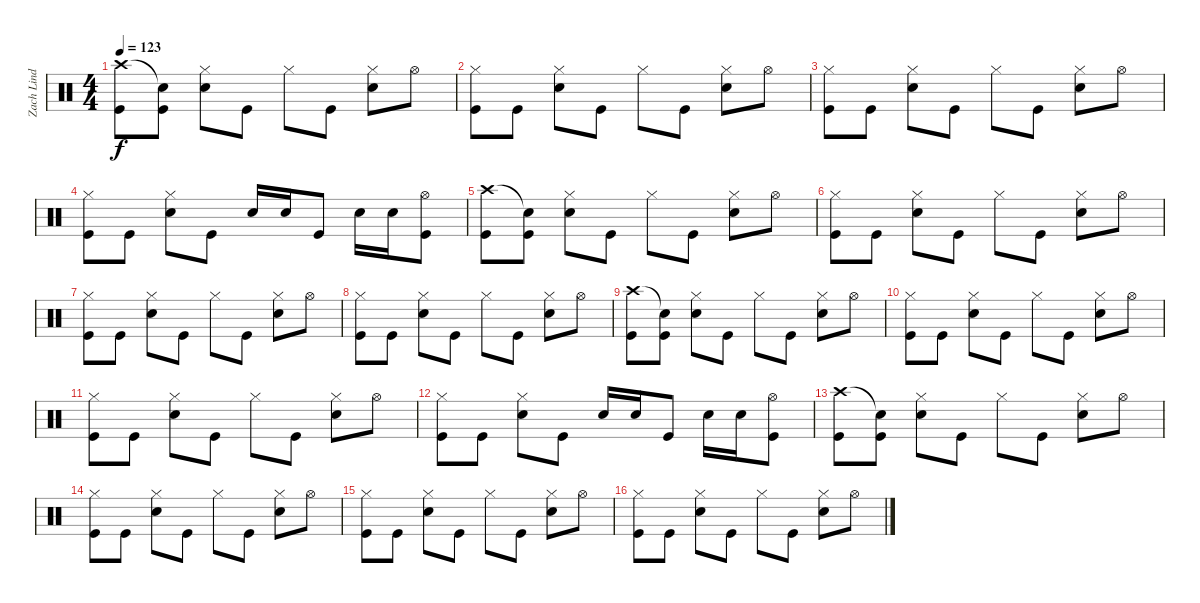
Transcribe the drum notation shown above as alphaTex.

\track ("Zach Lind (Drums)" "Zach Lind ") {instrument percussion}
\staff {score}
\articulation defaults
\ts (4 4)
\tempo 123
\clef neutral
\ks c
("Crash high (hit)" "Kick (hit)").8{dy f} ("Snare (hit)"{t} "Kick (hit)").8 ("Hi-Hat (closed)" "Snare (hit) 2").8 "Kick (hit)".8 "Hi-Hat (closed)".8 "Kick (hit)".8 ("Hi-Hat (closed)" "Snare (hit) 2").8 "Hi-Hat (open)".8 |
("Hi-Hat (closed)" "Kick (hit)").8 "Kick (hit)".8 ("Hi-Hat (closed)" "Snare (hit) 2").8 "Kick (hit)".8 "Hi-Hat (closed)".8 "Kick (hit)".8 ("Hi-Hat (closed)" "Snare (hit) 2").8 "Hi-Hat (open)".8 |
("Hi-Hat (closed)" "Kick (hit)").8 "Kick (hit)".8 ("Hi-Hat (closed)" "Snare (hit) 2").8 "Kick (hit)".8 "Hi-Hat (closed)".8 "Kick (hit)".8 ("Hi-Hat (closed)" "Snare (hit) 2").8 "Hi-Hat (open)".8 |
("Hi-Hat (closed)" "Kick (hit)").8 "Kick (hit)".8 ("Hi-Hat (closed)" "Snare (hit) 2").8 "Kick (hit)".8 "Snare (hit) 2".16 "Snare (hit) 2".16 "Kick (hit)".8 "Snare (hit) 2".16 "Snare (hit) 2".16 ("Hi-Hat (open)" "Kick (hit)").8 |
("Crash high (hit)" "Kick (hit)").8 ("Snare (hit)"{t} "Kick (hit)").8 ("Hi-Hat (closed)" "Snare (hit) 2").8 "Kick (hit)".8 "Hi-Hat (closed)".8 "Kick (hit)".8 ("Hi-Hat (closed)" "Snare (hit) 2").8 "Hi-Hat (open)".8 |
("Hi-Hat (closed)" "Kick (hit)").8 "Kick (hit)".8 ("Hi-Hat (closed)" "Snare (hit) 2").8 "Kick (hit)".8 "Hi-Hat (closed)".8 "Kick (hit)".8 ("Hi-Hat (closed)" "Snare (hit) 2").8 "Hi-Hat (open)".8 |
("Hi-Hat (closed)" "Kick (hit)").8 "Kick (hit)".8 ("Hi-Hat (closed)" "Snare (hit) 2").8 "Kick (hit)".8 "Hi-Hat (closed)".8 "Kick (hit)".8 ("Hi-Hat (closed)" "Snare (hit) 2").8 "Hi-Hat (open)".8 |
("Hi-Hat (closed)" "Kick (hit)").8 "Kick (hit)".8 ("Hi-Hat (closed)" "Snare (hit) 2").8 "Kick (hit)".8 "Hi-Hat (closed)".8 "Kick (hit)".8 ("Hi-Hat (closed)" "Snare (hit) 2").8 "Hi-Hat (open)".8 |
("Crash high (hit)" "Kick (hit)").8 ("Snare (hit)"{t} "Kick (hit)").8 ("Hi-Hat (closed)" "Snare (hit) 2").8 "Kick (hit)".8 "Hi-Hat (closed)".8 "Kick (hit)".8 ("Hi-Hat (closed)" "Snare (hit) 2").8 "Hi-Hat (open)".8 |
("Hi-Hat (closed)" "Kick (hit)").8 "Kick (hit)".8 ("Hi-Hat (closed)" "Snare (hit) 2").8 "Kick (hit)".8 "Hi-Hat (closed)".8 "Kick (hit)".8 ("Hi-Hat (closed)" "Snare (hit) 2").8 "Hi-Hat (open)".8 |
("Hi-Hat (closed)" "Kick (hit)").8 "Kick (hit)".8 ("Hi-Hat (closed)" "Snare (hit) 2").8 "Kick (hit)".8 "Hi-Hat (closed)".8 "Kick (hit)".8 ("Hi-Hat (closed)" "Snare (hit) 2").8 "Hi-Hat (open)".8 |
("Hi-Hat (closed)" "Kick (hit)").8 "Kick (hit)".8 ("Hi-Hat (closed)" "Snare (hit) 2").8 "Kick (hit)".8 "Snare (hit) 2".16 "Snare (hit) 2".16 "Kick (hit)".8 "Snare (hit) 2".16 "Snare (hit) 2".16 ("Hi-Hat (open)" "Kick (hit)").8 |
("Crash high (hit)" "Kick (hit)").8 ("Snare (hit)"{t} "Kick (hit)").8 ("Hi-Hat (closed)" "Snare (hit) 2").8 "Kick (hit)".8 "Hi-Hat (closed)".8 "Kick (hit)".8 ("Hi-Hat (closed)" "Snare (hit) 2").8 "Hi-Hat (open)".8 |
("Hi-Hat (closed)" "Kick (hit)").8 "Kick (hit)".8 ("Hi-Hat (closed)" "Snare (hit) 2").8 "Kick (hit)".8 "Hi-Hat (closed)".8 "Kick (hit)".8 ("Hi-Hat (closed)" "Snare (hit) 2").8 "Hi-Hat (open)".8 |
("Hi-Hat (closed)" "Kick (hit)").8 "Kick (hit)".8 ("Hi-Hat (closed)" "Snare (hit) 2").8 "Kick (hit)".8 "Hi-Hat (closed)".8 "Kick (hit)".8 ("Hi-Hat (closed)" "Snare (hit) 2").8 "Hi-Hat (open)".8 |
("Hi-Hat (closed)" "Kick (hit)").8 "Kick (hit)".8 ("Hi-Hat (closed)" "Snare (hit) 2").8 "Kick (hit)".8 "Hi-Hat (closed)".8 "Kick (hit)".8 ("Hi-Hat (closed)" "Snare (hit) 2").8 "Hi-Hat (open)".8
